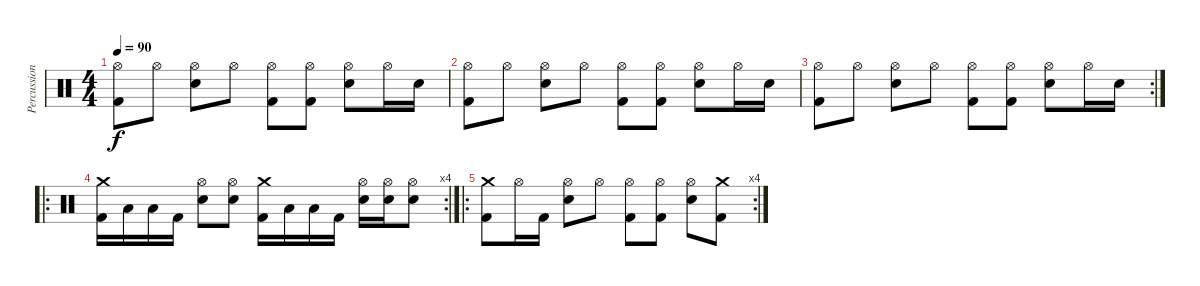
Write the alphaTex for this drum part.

\track ("Percussion" "Percussion") {instrument percussion}
\staff {score}
\articulation defaults
\ts (4 4)
\tempo 90
\clef neutral
\ks c
("Hi-Hat (open)" "Kick (hit) 2").8{dy f} "Hi-Hat (open)".8 ("Hi-Hat (open)" "Electric Snare (hit)").8 "Hi-Hat (open)".8 ("Hi-Hat (open)" "Kick (hit) 2").8 ("Hi-Hat (open)" "Kick (hit) 2").8 ("Hi-Hat (open)" "Electric Snare (hit)").8 "Hi-Hat (open)".16 "Electric Snare (hit)".16 |
("Hi-Hat (open)" "Kick (hit) 2").8 "Hi-Hat (open)".8 ("Hi-Hat (open)" "Electric Snare (hit)").8 "Hi-Hat (open)".8 ("Hi-Hat (open)" "Kick (hit) 2").8 ("Hi-Hat (open)" "Kick (hit) 2").8 ("Hi-Hat (open)" "Electric Snare (hit)").8 "Hi-Hat (open)".16 "Electric Snare (hit)".16 |
\rc 2
("Hi-Hat (open)" "Kick (hit) 2").8 "Hi-Hat (open)".8 ("Hi-Hat (open)" "Electric Snare (hit)").8 "Hi-Hat (open)".8 ("Hi-Hat (open)" "Kick (hit) 2").8 ("Hi-Hat (open)" "Kick (hit) 2").8 ("Hi-Hat (open)" "Electric Snare (hit)").8 "Hi-Hat (open)".16 "Electric Snare (hit)".16 |
\ro
\rc 4
("Crash medium (hit)" "Kick (hit) 2").16 "Low Tom (hit)".16 "Low Floor Tom (hit)".16 "Kick (hit) 2".16 ("Hi-Hat (open)" "Electric Snare (hit)").8 ("Hi-Hat (open)" "Electric Snare (hit)").8 ("Crash medium (hit)" "Kick (hit) 2").16 "Low Tom (hit)".16 "Low Floor Tom (hit)".16 "Kick (hit) 2".16 ("Hi-Hat (open)" "Electric Snare (hit)").16 ("Hi-Hat (open)" "Electric Snare (hit)").16 ("Hi-Hat (open)" "Electric Snare (hit)").8 |
\ro
\rc 4
("Crash medium (hit)" "Kick (hit) 2").8 "Hi-Hat (open)".16 "Kick (hit) 2".16 ("Hi-Hat (open)" "Electric Snare (hit)").8 "Hi-Hat (open)".8 ("Hi-Hat (open)" "Kick (hit) 2").8 ("Hi-Hat (open)" "Kick (hit) 2").8 ("Hi-Hat (open)" "Electric Snare (hit)").8 ("Crash medium (hit)" "Kick (hit) 2").8
